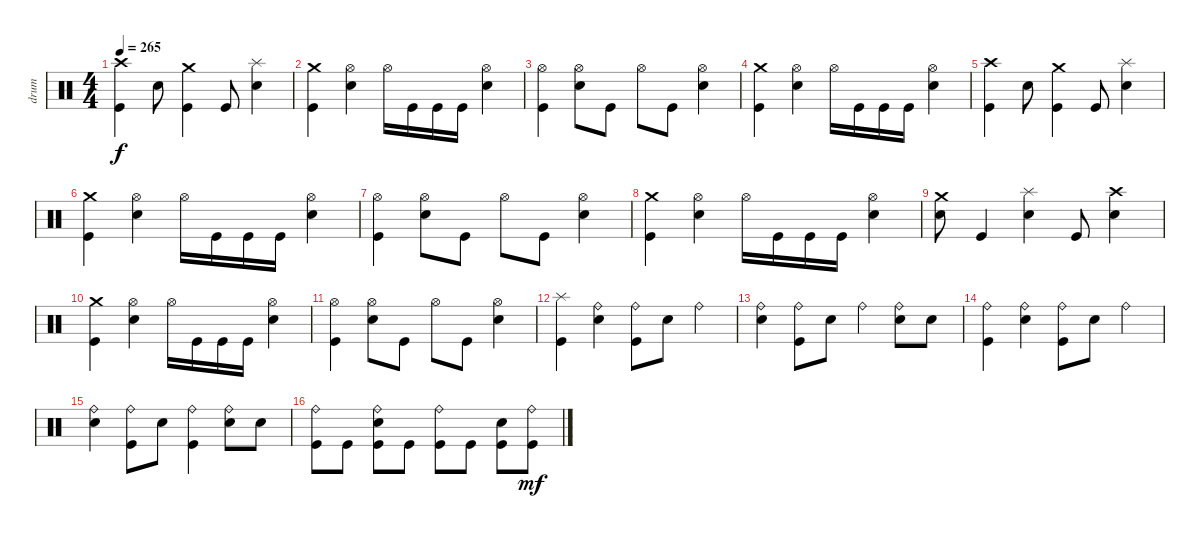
\track ("drum" "drum") {instrument percussion}
\staff {score}
\articulation defaults
\ts (4 4)
\tempo 265
\clef neutral
\ks c
("Kick (hit)" "Crash high (hit)").4{dy f} "Electric Snare (hit)".8 ("Kick (hit)" "Crash medium (hit)").4 "Kick (hit)".8 ("Electric Snare (hit)" "Splash (hit)").4 |
("Kick (hit)" "Crash medium (hit)").4 ("Electric Snare (hit)" "Hi-Hat (open)").4 "Hi-Hat (open)".16 "Kick (hit)".16 "Kick (hit)".16 "Kick (hit)".16 ("Electric Snare (hit)" "Hi-Hat (open)").4 |
("Kick (hit)" "Hi-Hat (open)").4 ("Electric Snare (hit)" "Hi-Hat (open)").8 "Kick (hit)".8 "Hi-Hat (open)".8 "Kick (hit)".8 ("Electric Snare (hit)" "Hi-Hat (open)").4 |
("Kick (hit)" "Crash medium (hit)").4 ("Electric Snare (hit)" "Hi-Hat (open)").4 "Hi-Hat (open)".16 "Kick (hit)".16 "Kick (hit)".16 "Kick (hit)".16 ("Electric Snare (hit)" "Hi-Hat (open)").4 |
("Kick (hit)" "Crash high (hit)").4 "Electric Snare (hit)".8 ("Kick (hit)" "Crash medium (hit)").4 "Kick (hit)".8 ("Electric Snare (hit)" "Splash (hit)").4 |
("Kick (hit)" "Crash medium (hit)").4 ("Electric Snare (hit)" "Hi-Hat (open)").4 "Hi-Hat (open)".16 "Kick (hit)".16 "Kick (hit)".16 "Kick (hit)".16 ("Electric Snare (hit)" "Hi-Hat (open)").4 |
("Kick (hit)" "Hi-Hat (open)").4 ("Electric Snare (hit)" "Hi-Hat (open)").8 "Kick (hit)".8 "Hi-Hat (open)".8 "Kick (hit)".8 ("Electric Snare (hit)" "Hi-Hat (open)").4 |
("Kick (hit)" "Crash medium (hit)").4 ("Electric Snare (hit)" "Hi-Hat (open)").4 "Hi-Hat (open)".16 "Kick (hit)".16 "Kick (hit)".16 "Kick (hit)".16 ("Electric Snare (hit)" "Hi-Hat (open)").4 |
("Electric Snare (hit)" "Crash medium (hit)").8 "Kick (hit)".4 ("Electric Snare (hit)" "Splash (hit)").4 "Kick (hit)".8 ("Electric Snare (hit)" "Crash high (hit)").4 |
("Kick (hit)" "Crash medium (hit)").4 ("Electric Snare (hit)" "Hi-Hat (open)").4 "Hi-Hat (open)".16 "Kick (hit)".16 "Kick (hit)".16 "Kick (hit)".16 ("Electric Snare (hit)" "Hi-Hat (open)").4 |
("Kick (hit)" "Hi-Hat (open)").4 ("Electric Snare (hit)" "Hi-Hat (open)").8 "Kick (hit)".8 "Hi-Hat (open)".8 "Kick (hit)".8 ("Electric Snare (hit)" "Hi-Hat (open)").4 |
("Kick (hit)" "Splash (hit)").4 ("Electric Snare (hit)" "Ride (bell)").4 ("Kick (hit)" "Ride (bell)").8 "Electric Snare (hit)".8 "Ride (bell)".4 |
("Electric Snare (hit)" "Ride (bell)").4 ("Kick (hit)" "Ride (bell)").8 "Electric Snare (hit)".8 "Ride (bell)".4 ("Electric Snare (hit)" "Ride (bell)").8 "Electric Snare (hit)".8 |
("Kick (hit)" "Ride (bell)").4 ("Electric Snare (hit)" "Ride (bell)").4 ("Kick (hit)" "Ride (bell)").8 "Electric Snare (hit)".8 "Ride (bell)".4 |
("Electric Snare (hit)" "Ride (bell)").4 ("Kick (hit)" "Ride (bell)").8 "Electric Snare (hit)".8 ("Kick (hit)" "Ride (bell)").4 ("Electric Snare (hit)" "Ride (bell)").8 "Electric Snare (hit)".8 |
("Kick (hit)" "Ride (bell)").8 "Kick (hit)".8 ("Kick (hit)" "Electric Snare (hit)" "Ride (bell)").8 "Kick (hit)".8 ("Kick (hit)" "Ride (bell)").8 "Kick (hit)".8 ("Kick (hit)" "Electric Snare (hit)").8 ("Kick (hit)" "Ride (bell)").8{dy mf}
